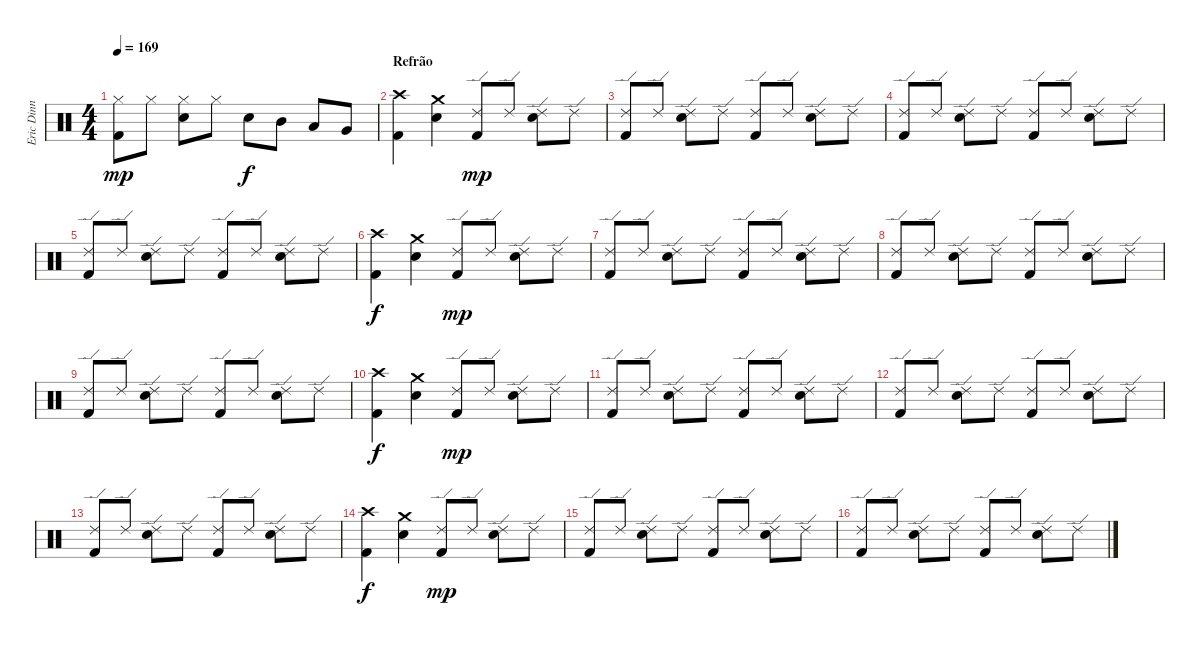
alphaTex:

\track ("Eric Dinn" "Eric Dinn") {instrument percussion}
\staff {score}
\articulation defaults
\ts (4 4)
\tempo 169
\clef neutral
\ks c
("Hi-Hat (closed)" "Kick (hit) 2").8{dy mp} "Hi-Hat (closed)".8 ("Hi-Hat (closed)" "Snare (hit) 2").8 "Hi-Hat (closed)".8 "Snare (hit) 2".8{dy f} "Mid Tom (hit)".8 "Low Tom (hit)".8 "Very Low Tom (hit)".8 |
\section ("" "Refrão")
("Crash high (hit)" "Kick (hit) 2").4 ("Crash medium (hit)" "Snare (hit) 2").4 ("Ride (edge) 2" "Kick (hit) 2").8{dy mp} "Ride (edge) 2".8 ("Ride (edge) 2" "Snare (hit) 2").8 "Ride (edge) 2".8 |
("Ride (edge) 2" "Kick (hit) 2").8 "Ride (edge) 2".8 ("Ride (edge) 2" "Snare (hit) 2").8 "Ride (edge) 2".8 ("Ride (edge) 2" "Kick (hit) 2").8 "Ride (edge) 2".8 ("Ride (edge) 2" "Snare (hit) 2").8 "Ride (edge) 2".8 |
("Ride (edge) 2" "Kick (hit) 2").8 "Ride (edge) 2".8 ("Ride (edge) 2" "Snare (hit) 2").8 "Ride (edge) 2".8 ("Ride (edge) 2" "Kick (hit) 2").8 "Ride (edge) 2".8 ("Ride (edge) 2" "Snare (hit) 2").8 "Ride (edge) 2".8 |
("Ride (edge) 2" "Kick (hit) 2").8 "Ride (edge) 2".8 ("Ride (edge) 2" "Snare (hit) 2").8 "Ride (edge) 2".8 ("Ride (edge) 2" "Kick (hit) 2").8 "Ride (edge) 2".8 ("Ride (edge) 2" "Snare (hit) 2").8 "Ride (edge) 2".8 |
("Crash high (hit)" "Kick (hit) 2").4{dy f} ("Crash medium (hit)" "Snare (hit) 2").4 ("Ride (edge) 2" "Kick (hit) 2").8{dy mp} "Ride (edge) 2".8 ("Ride (edge) 2" "Snare (hit) 2").8 "Ride (edge) 2".8 |
("Ride (edge) 2" "Kick (hit) 2").8 "Ride (edge) 2".8 ("Ride (edge) 2" "Snare (hit) 2").8 "Ride (edge) 2".8 ("Ride (edge) 2" "Kick (hit) 2").8 "Ride (edge) 2".8 ("Ride (edge) 2" "Snare (hit) 2").8 "Ride (edge) 2".8 |
("Ride (edge) 2" "Kick (hit) 2").8 "Ride (edge) 2".8 ("Ride (edge) 2" "Snare (hit) 2").8 "Ride (edge) 2".8 ("Ride (edge) 2" "Kick (hit) 2").8 "Ride (edge) 2".8 ("Ride (edge) 2" "Snare (hit) 2").8 "Ride (edge) 2".8 |
("Ride (edge) 2" "Kick (hit) 2").8 "Ride (edge) 2".8 ("Ride (edge) 2" "Snare (hit) 2").8 "Ride (edge) 2".8 ("Ride (edge) 2" "Kick (hit) 2").8 "Ride (edge) 2".8 ("Ride (edge) 2" "Snare (hit) 2").8 "Ride (edge) 2".8 |
("Crash high (hit)" "Kick (hit) 2").4{dy f} ("Crash medium (hit)" "Snare (hit) 2").4 ("Ride (edge) 2" "Kick (hit) 2").8{dy mp} "Ride (edge) 2".8 ("Ride (edge) 2" "Snare (hit) 2").8 "Ride (edge) 2".8 |
("Ride (edge) 2" "Kick (hit) 2").8 "Ride (edge) 2".8 ("Ride (edge) 2" "Snare (hit) 2").8 "Ride (edge) 2".8 ("Ride (edge) 2" "Kick (hit) 2").8 "Ride (edge) 2".8 ("Ride (edge) 2" "Snare (hit) 2").8 "Ride (edge) 2".8 |
("Ride (edge) 2" "Kick (hit) 2").8 "Ride (edge) 2".8 ("Ride (edge) 2" "Snare (hit) 2").8 "Ride (edge) 2".8 ("Ride (edge) 2" "Kick (hit) 2").8 "Ride (edge) 2".8 ("Ride (edge) 2" "Snare (hit) 2").8 "Ride (edge) 2".8 |
("Ride (edge) 2" "Kick (hit) 2").8 "Ride (edge) 2".8 ("Ride (edge) 2" "Snare (hit) 2").8 "Ride (edge) 2".8 ("Ride (edge) 2" "Kick (hit) 2").8 "Ride (edge) 2".8 ("Ride (edge) 2" "Snare (hit) 2").8 "Ride (edge) 2".8 |
("Crash high (hit)" "Kick (hit) 2").4{dy f} ("Crash medium (hit)" "Snare (hit) 2").4 ("Ride (edge) 2" "Kick (hit) 2").8{dy mp} "Ride (edge) 2".8 ("Ride (edge) 2" "Snare (hit) 2").8 "Ride (edge) 2".8 |
("Ride (edge) 2" "Kick (hit) 2").8 "Ride (edge) 2".8 ("Ride (edge) 2" "Snare (hit) 2").8 "Ride (edge) 2".8 ("Ride (edge) 2" "Kick (hit) 2").8 "Ride (edge) 2".8 ("Ride (edge) 2" "Snare (hit) 2").8 "Ride (edge) 2".8 |
("Ride (edge) 2" "Kick (hit) 2").8 "Ride (edge) 2".8 ("Ride (edge) 2" "Snare (hit) 2").8 "Ride (edge) 2".8 ("Ride (edge) 2" "Kick (hit) 2").8 "Ride (edge) 2".8 ("Ride (edge) 2" "Snare (hit) 2").8 "Ride (edge) 2".8
